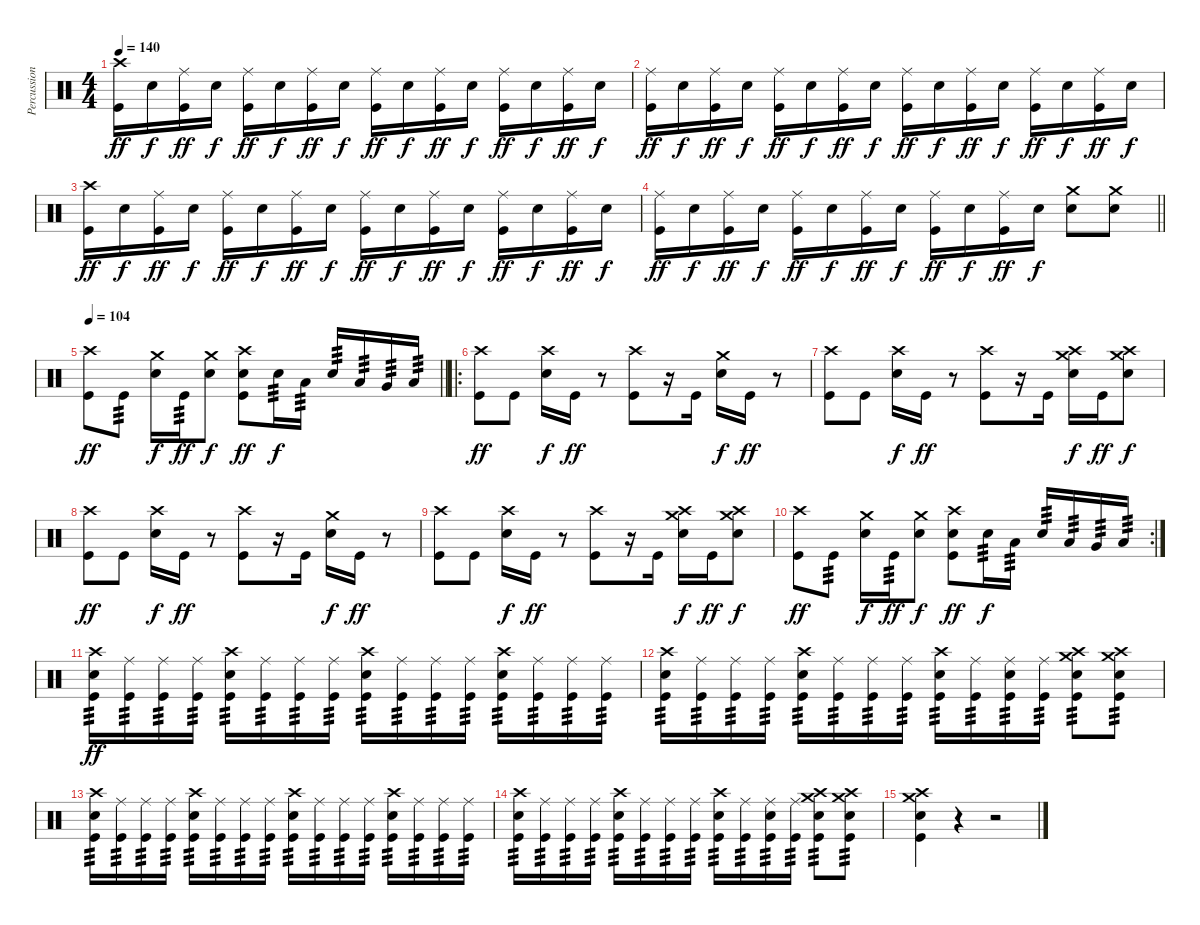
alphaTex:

\track ("Percussion" "Percussion") {instrument percussion}
\staff {score}
\articulation defaults
\ts (4 4)
\tempo 140
\clef neutral
\ks c
("Crash high (hit)" "Kick (hit)").16{dy ff} "Electric Snare (hit)".16{dy f} ("Ride (middle)" "Kick (hit)").16{dy ff} "Electric Snare (hit)".16{dy f} ("Ride (middle)" "Kick (hit)").16{dy ff} "Electric Snare (hit)".16{dy f} ("Ride (middle)" "Kick (hit)").16{dy ff} "Electric Snare (hit)".16{dy f} ("Ride (middle)" "Kick (hit)").16{dy ff} "Electric Snare (hit)".16{dy f} ("Ride (middle)" "Kick (hit)").16{dy ff} "Electric Snare (hit)".16{dy f} ("Ride (middle)" "Kick (hit)").16{dy ff} "Electric Snare (hit)".16{dy f} ("Ride (middle)" "Kick (hit)").16{dy ff} "Electric Snare (hit)".16{dy f} |
("Ride (middle)" "Kick (hit)").16{dy ff} "Electric Snare (hit)".16{dy f} ("Ride (middle)" "Kick (hit)").16{dy ff} "Electric Snare (hit)".16{dy f} ("Ride (middle)" "Kick (hit)").16{dy ff} "Electric Snare (hit)".16{dy f} ("Ride (middle)" "Kick (hit)").16{dy ff} "Electric Snare (hit)".16{dy f} ("Ride (middle)" "Kick (hit)").16{dy ff} "Electric Snare (hit)".16{dy f} ("Ride (middle)" "Kick (hit)").16{dy ff} "Electric Snare (hit)".16{dy f} ("Ride (middle)" "Kick (hit)").16{dy ff} "Electric Snare (hit)".16{dy f} ("Ride (middle)" "Kick (hit)").16{dy ff} "Electric Snare (hit)".16{dy f} |
("Crash high (hit)" "Kick (hit)").16{dy ff} "Electric Snare (hit)".16{dy f} ("Ride (middle)" "Kick (hit)").16{dy ff} "Electric Snare (hit)".16{dy f} ("Ride (middle)" "Kick (hit)").16{dy ff} "Electric Snare (hit)".16{dy f} ("Ride (middle)" "Kick (hit)").16{dy ff} "Electric Snare (hit)".16{dy f} ("Ride (middle)" "Kick (hit)").16{dy ff} "Electric Snare (hit)".16{dy f} ("Ride (middle)" "Kick (hit)").16{dy ff} "Electric Snare (hit)".16{dy f} ("Ride (middle)" "Kick (hit)").16{dy ff} "Electric Snare (hit)".16{dy f} ("Ride (middle)" "Kick (hit)").16{dy ff} "Electric Snare (hit)".16{dy f} |
\barLineRight lightlight
("Ride (middle)" "Kick (hit)").16{dy ff} "Electric Snare (hit)".16{dy f} ("Ride (middle)" "Kick (hit)").16{dy ff} "Electric Snare (hit)".16{dy f} ("Ride (middle)" "Kick (hit)").16{dy ff} "Electric Snare (hit)".16{dy f} ("Ride (middle)" "Kick (hit)").16{dy ff} "Electric Snare (hit)".16{dy f} ("Ride (middle)" "Kick (hit)").16{dy ff} "Electric Snare (hit)".16{dy f} ("Ride (middle)" "Kick (hit)").16{dy ff} "Electric Snare (hit)".16{dy f} ("Crash medium (hit)" "Electric Snare (hit)").8 ("Crash medium (hit)" "Electric Snare (hit)").8 |
\tempo 104
\barLineRight lightlight
("Crash high (hit)" "Kick (hit)").8{dy ff} "Kick (hit)".8{tp 3} ("Crash medium (hit)" "Electric Snare (hit)").16{dy f} "Kick (hit)".16{tp 3 dy ff} ("Crash medium (hit)" "Electric Snare (hit)").8{dy f} ("Crash high (hit)" "Electric Snare (hit)" "Kick (hit)").8{dy ff} "Electric Snare (hit)".16{tp 3 dy f} "Low Tom (hit)".16{tp 3} "Electric Snare (hit)".16{tp 3} "Low Tom (hit)".16{tp 3} "Very Low Tom (hit)".16{tp 3} "Low Floor Tom (hit)".16{tp 3} |
\ro
("Crash high (hit)" "Kick (hit)").8{dy ff} "Kick (hit)".8 ("Crash high (hit)" "Electric Snare (hit)").16{dy f} "Kick (hit)".16{dy ff} r.8 ("Crash high (hit)" "Kick (hit)").8 r.16 "Kick (hit)".16 ("Crash medium (hit)" "Electric Snare (hit)").16{dy f} "Kick (hit)".16{dy ff} r.8 |
("Crash high (hit)" "Kick (hit)").8 "Kick (hit)".8 ("Crash high (hit)" "Electric Snare (hit)").16{dy f} "Kick (hit)".16{dy ff} r.8 ("Crash high (hit)" "Kick (hit)").8 r.16 "Kick (hit)".16 ("Crash medium (hit)" "Crash high (hit)" "Electric Snare (hit)").16{dy f} "Kick (hit)".16{dy ff} ("Crash medium (hit)" "Crash high (hit)" "Electric Snare (hit)").8{dy f} |
("Crash high (hit)" "Kick (hit)").8{dy ff} "Kick (hit)".8 ("Crash high (hit)" "Electric Snare (hit)").16{dy f} "Kick (hit)".16{dy ff} r.8 ("Crash high (hit)" "Kick (hit)").8 r.16 "Kick (hit)".16 ("Crash medium (hit)" "Electric Snare (hit)").16{dy f} "Kick (hit)".16{dy ff} r.8 |
("Crash high (hit)" "Kick (hit)").8 "Kick (hit)".8 ("Crash high (hit)" "Electric Snare (hit)").16{dy f} "Kick (hit)".16{dy ff} r.8 ("Crash high (hit)" "Kick (hit)").8 r.16 "Kick (hit)".16 ("Crash medium (hit)" "Crash high (hit)" "Electric Snare (hit)").16{dy f} "Kick (hit)".16{dy ff} ("Crash medium (hit)" "Crash high (hit)" "Electric Snare (hit)").8{dy f} |
\rc 2
("Crash high (hit)" "Kick (hit)").8{dy ff} "Kick (hit)".8{tp 3} ("Crash medium (hit)" "Electric Snare (hit)").16{dy f} "Kick (hit)".16{tp 3 dy ff} ("Crash medium (hit)" "Electric Snare (hit)").8{dy f} ("Crash high (hit)" "Electric Snare (hit)" "Kick (hit)").8{dy ff} "Electric Snare (hit)".16{tp 3 dy f} "Low Tom (hit)".16{tp 3} "Electric Snare (hit)".16{tp 3} "Low Tom (hit)".16{tp 3} "Very Low Tom (hit)".16{tp 3} "Low Floor Tom (hit)".16{tp 3} |
("Crash high (hit)" "Electric Snare (hit)" "Kick (hit)").16{tp 3 dy ff} ("Ride (middle)" "Kick (hit)").16{tp 3} ("Ride (middle)" "Kick (hit)").16{tp 3} ("Ride (middle)" "Kick (hit)").16{tp 3} ("Crash high (hit)" "Electric Snare (hit)" "Kick (hit)").16{tp 3} ("Ride (middle)" "Kick (hit)").16{tp 3} ("Ride (middle)" "Kick (hit)").16{tp 3} ("Ride (middle)" "Kick (hit)").16{tp 3} ("Crash high (hit)" "Electric Snare (hit)" "Kick (hit)").16{tp 3} ("Ride (middle)" "Kick (hit)").16{tp 3} ("Ride (middle)" "Kick (hit)").16{tp 3} ("Ride (middle)" "Kick (hit)").16{tp 3} ("Crash high (hit)" "Electric Snare (hit)" "Kick (hit)").16{tp 3} ("Ride (middle)" "Kick (hit)").16{tp 3} ("Ride (middle)" "Kick (hit)").16{tp 3} ("Ride (middle)" "Kick (hit)").16{tp 3} |
("Crash high (hit)" "Electric Snare (hit)" "Kick (hit)").16{tp 3} ("Ride (middle)" "Kick (hit)").16{tp 3} ("Ride (middle)" "Kick (hit)").16{tp 3} ("Ride (middle)" "Kick (hit)").16{tp 3} ("Crash high (hit)" "Electric Snare (hit)" "Kick (hit)").16{tp 3} ("Ride (middle)" "Kick (hit)").16{tp 3} ("Ride (middle)" "Kick (hit)").16{tp 3} ("Ride (middle)" "Kick (hit)").16{tp 3} ("Crash high (hit)" "Electric Snare (hit)" "Kick (hit)").16{tp 3} ("Ride (middle)" "Kick (hit)").16{tp 3} ("Ride (middle)" "Electric Snare (hit)" "Kick (hit)").16{tp 3} ("Ride (middle)" "Kick (hit)").16{tp 3} ("Crash medium (hit)" "Crash high (hit)" "Electric Snare (hit)" "Kick (hit)").8{tp 3} ("Crash medium (hit)" "Crash high (hit)" "Electric Snare (hit)" "Kick (hit)").8{tp 3} |
("Crash high (hit)" "Electric Snare (hit)" "Kick (hit)").16{tp 3} ("Ride (middle)" "Kick (hit)").16{tp 3} ("Ride (middle)" "Kick (hit)").16{tp 3} ("Ride (middle)" "Kick (hit)").16{tp 3} ("Crash high (hit)" "Electric Snare (hit)" "Kick (hit)").16{tp 3} ("Ride (middle)" "Kick (hit)").16{tp 3} ("Ride (middle)" "Kick (hit)").16{tp 3} ("Ride (middle)" "Kick (hit)").16{tp 3} ("Crash high (hit)" "Electric Snare (hit)" "Kick (hit)").16{tp 3} ("Ride (middle)" "Kick (hit)").16{tp 3} ("Ride (middle)" "Kick (hit)").16{tp 3} ("Ride (middle)" "Kick (hit)").16{tp 3} ("Crash high (hit)" "Electric Snare (hit)" "Kick (hit)").16{tp 3} ("Ride (middle)" "Kick (hit)").16{tp 3} ("Ride (middle)" "Kick (hit)").16{tp 3} ("Ride (middle)" "Kick (hit)").16{tp 3} |
("Crash high (hit)" "Electric Snare (hit)" "Kick (hit)").16{tp 3} ("Ride (middle)" "Kick (hit)").16{tp 3} ("Ride (middle)" "Kick (hit)").16{tp 3} ("Ride (middle)" "Kick (hit)").16{tp 3} ("Crash high (hit)" "Electric Snare (hit)" "Kick (hit)").16{tp 3} ("Ride (middle)" "Kick (hit)").16{tp 3} ("Ride (middle)" "Kick (hit)").16{tp 3} ("Ride (middle)" "Kick (hit)").16{tp 3} ("Crash high (hit)" "Electric Snare (hit)" "Kick (hit)").16{tp 3} ("Ride (middle)" "Kick (hit)").16{tp 3} ("Ride (middle)" "Electric Snare (hit)" "Kick (hit)").16{tp 3} ("Ride (middle)" "Kick (hit)").16{tp 3} ("Crash medium (hit)" "Crash high (hit)" "Electric Snare (hit)" "Kick (hit)").8{tp 3} ("Crash medium (hit)" "Crash high (hit)" "Electric Snare (hit)" "Kick (hit)").8{tp 3} |
("Crash medium (hit)" "Crash high (hit)" "Electric Snare (hit)" "Kick (hit)").4 r.4 r.2
